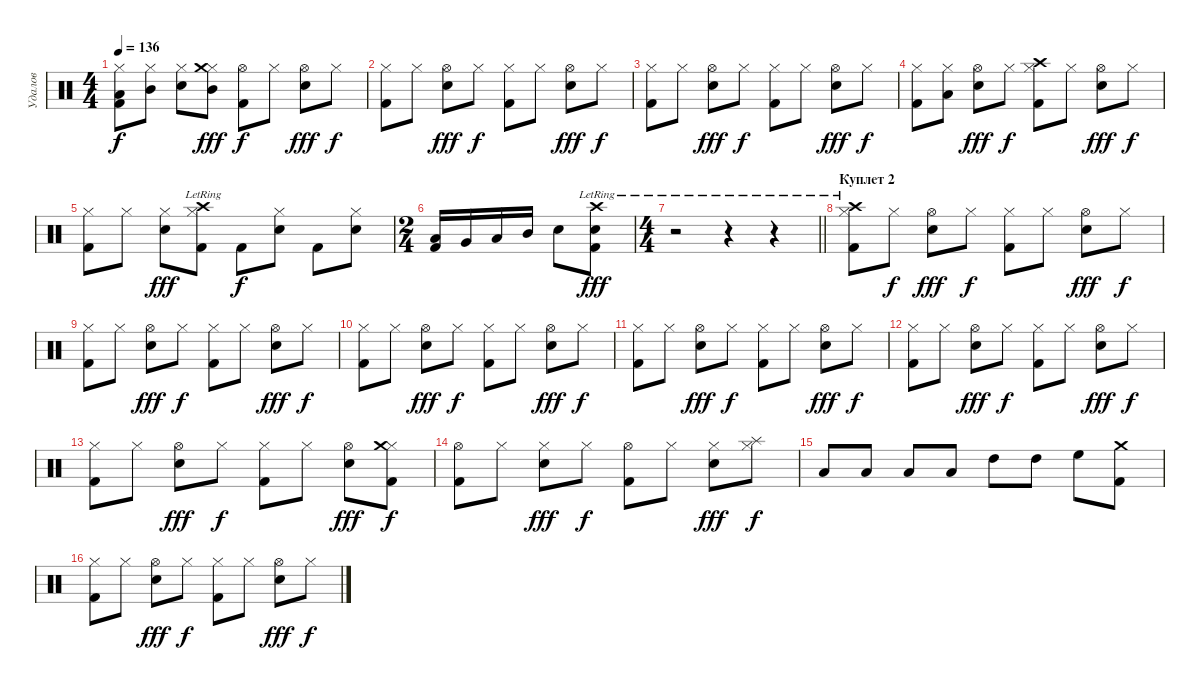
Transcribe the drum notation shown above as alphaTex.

\track ("Удалов" "Удалов") {instrument percussion}
\staff {score}
\articulation defaults
\ts (4 4)
\tempo 136
\clef neutral
\ks c
("Hi-Hat (closed)" "Kick (hit) 2" "Low Floor Tom (hit)").8{dy f} ("Hi-Hat (closed)" "Mid Tom (hit)").8 ("Hi-Hat (closed)" "Snare (hit) 2").8 ("Hi-Hat (closed)" "Mid Tom (hit)" "Crash medium (hit)").8{dy fff} ("Hi-Hat (open)" "Kick (hit) 2").8{dy f} "Hi-Hat (closed)".8 ("Hi-Hat (open)" "Snare (hit) 2").8{dy fff} "Hi-Hat (closed)".8{dy f} |
("Hi-Hat (closed)" "Kick (hit) 2").8 "Hi-Hat (closed)".8 ("Hi-Hat (open)" "Snare (hit) 2").8{dy fff} "Hi-Hat (closed)".8{dy f} ("Hi-Hat (closed)" "Kick (hit) 2").8 "Hi-Hat (closed)".8 ("Hi-Hat (open)" "Snare (hit) 2").8{dy fff} "Hi-Hat (closed)".8{dy f} |
("Hi-Hat (closed)" "Kick (hit) 2").8 "Hi-Hat (closed)".8 ("Hi-Hat (open)" "Snare (hit) 2").8{dy fff} "Hi-Hat (closed)".8{dy f} ("Hi-Hat (closed)" "Kick (hit) 2").8 "Hi-Hat (closed)".8 ("Hi-Hat (open)" "Snare (hit) 2").8{dy fff} "Hi-Hat (closed)".8{dy f} |
("Hi-Hat (closed)" "Kick (hit) 2").8 ("Hi-Hat (closed)" "Low Tom (hit)").8 ("Hi-Hat (open)" "Snare (hit) 2").8{dy fff} "Hi-Hat (closed)".8{dy f} ("Hi-Hat (closed)" "Kick (hit) 2" "Crash high (hit)").8 "Hi-Hat (closed)".8 ("Hi-Hat (open)" "Snare (hit) 2").8{dy fff} "Hi-Hat (closed)".8{dy f} |
("Hi-Hat (closed)" "Kick (hit) 2").8 "Hi-Hat (closed)".8 ("Hi-Hat (closed)" "Snare (hit) 2").8{dy fff} ("Hi-Hat (closed)" "Kick (hit) 2" "Crash high (hit)"{lr}).8 "Kick (hit) 2".8{dy f} ("Hi-Hat (closed)" "Snare (hit) 2").8 "Kick (hit) 2".8 ("Hi-Hat (closed)" "Snare (hit) 2").8 |
\ts (2 4)
("Low Floor Tom (hit)" "Kick (hit) 2").16 "Very Low Tom (hit)".16 "Low Tom (hit)".16 "Mid Tom (hit)".16 "Snare (hit) 2".8 ("Snare (hit) 2" "Crash high (hit)"{lr} "Kick (hit) 2").8{dy fff} |
\ts (4 4)
\barLineRight lightlight
r.2 r.4 r.4 |
\section ("" "Куплет 2")
("Hi-Hat (closed)" "Kick (hit) 2" "Crash high (hit)"{lr}).8 "Hi-Hat (closed)".8{dy f} ("Hi-Hat (open)" "Snare (hit) 2").8{dy fff} "Hi-Hat (closed)".8{dy f} ("Hi-Hat (closed)" "Kick (hit) 2").8 "Hi-Hat (closed)".8 ("Hi-Hat (open)" "Snare (hit) 2").8{dy fff} "Hi-Hat (closed)".8{dy f} |
("Hi-Hat (closed)" "Kick (hit) 2").8 "Hi-Hat (closed)".8 ("Hi-Hat (open)" "Snare (hit) 2").8{dy fff} "Hi-Hat (closed)".8{dy f} ("Hi-Hat (closed)" "Kick (hit) 2").8 "Hi-Hat (closed)".8 ("Hi-Hat (open)" "Snare (hit) 2").8{dy fff} "Hi-Hat (closed)".8{dy f} |
("Hi-Hat (closed)" "Kick (hit) 2").8 "Hi-Hat (closed)".8 ("Hi-Hat (open)" "Snare (hit) 2").8{dy fff} "Hi-Hat (closed)".8{dy f} ("Hi-Hat (closed)" "Kick (hit) 2").8 "Hi-Hat (closed)".8 ("Hi-Hat (open)" "Snare (hit) 2").8{dy fff} "Hi-Hat (closed)".8{dy f} |
("Hi-Hat (closed)" "Kick (hit) 2").8 "Hi-Hat (closed)".8 ("Hi-Hat (open)" "Snare (hit) 2").8{dy fff} "Hi-Hat (closed)".8{dy f} ("Hi-Hat (closed)" "Kick (hit) 2").8 "Hi-Hat (closed)".8 ("Hi-Hat (open)" "Snare (hit) 2").8{dy fff} "Hi-Hat (closed)".8{dy f} |
("Hi-Hat (closed)" "Kick (hit) 2").8 "Hi-Hat (closed)".8 ("Hi-Hat (open)" "Snare (hit) 2").8{dy fff} "Hi-Hat (closed)".8{dy f} ("Hi-Hat (closed)" "Kick (hit) 2").8 "Hi-Hat (closed)".8 ("Hi-Hat (open)" "Snare (hit) 2").8{dy fff} "Hi-Hat (closed)".8{dy f} |
("Hi-Hat (closed)" "Kick (hit) 2").8 "Hi-Hat (closed)".8 ("Hi-Hat (open)" "Snare (hit) 2").8{dy fff} "Hi-Hat (closed)".8{dy f} ("Hi-Hat (closed)" "Kick (hit) 2").8 "Hi-Hat (closed)".8 ("Hi-Hat (open)" "Snare (hit) 2").8{dy fff} ("Hi-Hat (closed)" "Kick (hit) 2" "Crash medium (hit)").8{dy f} |
("Hi-Hat (open)" "Kick (hit) 2").8 "Hi-Hat (closed)".8 ("Hi-Hat (closed)" "Snare (hit) 2").8{dy fff} "Hi-Hat (closed)".8{dy f} ("Hi-Hat (open)" "Kick (hit) 2").8 "Hi-Hat (closed)".8 ("Hi-Hat (closed)" "Snare (hit) 2").8{dy fff} ("Hi-Hat (closed)" "Splash (hit)").8{dy f} |
"Low Floor Tom (hit)".8 "Low Floor Tom (hit)".8 "Low Tom (hit)".8 "Low Tom (hit)".8 "High Tom (hit)".8 "High Tom (hit)".8 "High Floor Tom (hit)".8 ("Crash medium (hit)" "Kick (hit) 2").8 |
("Hi-Hat (closed)" "Kick (hit) 2").8 "Hi-Hat (closed)".8 ("Hi-Hat (open)" "Snare (hit) 2").8{dy fff} "Hi-Hat (closed)".8{dy f} ("Hi-Hat (closed)" "Kick (hit) 2").8 "Hi-Hat (closed)".8 ("Hi-Hat (open)" "Snare (hit) 2").8{dy fff} "Hi-Hat (closed)".8{dy f}
